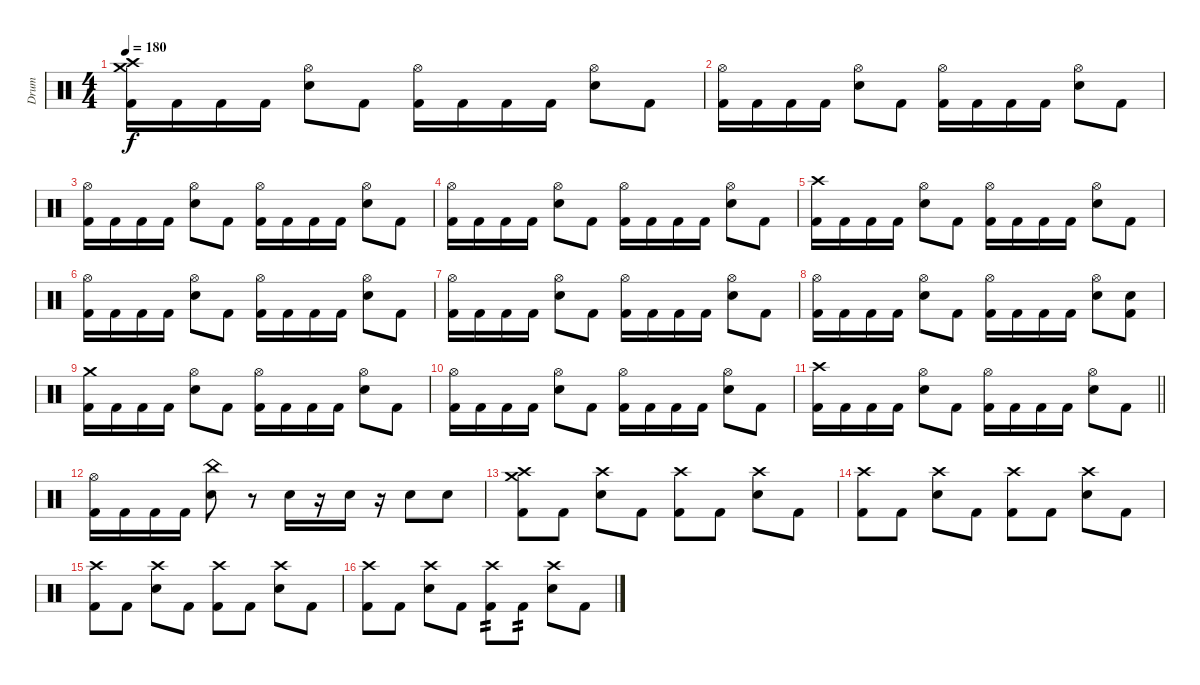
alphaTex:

\track ("Drum" "Drum") {instrument percussion}
\staff {score}
\articulation defaults
\ts (4 4)
\tempo 180
\clef neutral
\ks c
("Crash high (hit)" "Crash medium (hit)" "Kick (hit) 2").16{dy f} "Kick (hit) 2".16 "Kick (hit) 2".16 "Kick (hit) 2".16 ("Hi-Hat (open)" "Snare (hit) 2").8 "Kick (hit) 2".8 ("Hi-Hat (open)" "Kick (hit) 2").16 "Kick (hit) 2".16 "Kick (hit) 2".16 "Kick (hit) 2".16 ("Hi-Hat (open)" "Snare (hit) 2").8 "Kick (hit) 2".8 |
("Hi-Hat (open)" "Kick (hit) 2").16 "Kick (hit) 2".16 "Kick (hit) 2".16 "Kick (hit) 2".16 ("Hi-Hat (open)" "Snare (hit) 2").8 "Kick (hit) 2".8 ("Hi-Hat (open)" "Kick (hit) 2").16 "Kick (hit) 2".16 "Kick (hit) 2".16 "Kick (hit) 2".16 ("Hi-Hat (open)" "Snare (hit) 2").8 "Kick (hit) 2".8 |
("Hi-Hat (open)" "Kick (hit) 2").16 "Kick (hit) 2".16 "Kick (hit) 2".16 "Kick (hit) 2".16 ("Hi-Hat (open)" "Snare (hit) 2").8 "Kick (hit) 2".8 ("Hi-Hat (open)" "Kick (hit) 2").16 "Kick (hit) 2".16 "Kick (hit) 2".16 "Kick (hit) 2".16 ("Hi-Hat (open)" "Snare (hit) 2").8 "Kick (hit) 2".8 |
("Hi-Hat (open)" "Kick (hit) 2").16 "Kick (hit) 2".16 "Kick (hit) 2".16 "Kick (hit) 2".16 ("Hi-Hat (open)" "Snare (hit) 2").8 "Kick (hit) 2".8 ("Hi-Hat (open)" "Kick (hit) 2").16 "Kick (hit) 2".16 "Kick (hit) 2".16 "Kick (hit) 2".16 ("Hi-Hat (open)" "Snare (hit) 2").8 "Kick (hit) 2".8 |
("Crash high (hit)" "Kick (hit) 2").16 "Kick (hit) 2".16 "Kick (hit) 2".16 "Kick (hit) 2".16 ("Hi-Hat (open)" "Snare (hit) 2").8 "Kick (hit) 2".8 ("Hi-Hat (open)" "Kick (hit) 2").16 "Kick (hit) 2".16 "Kick (hit) 2".16 "Kick (hit) 2".16 ("Hi-Hat (open)" "Snare (hit) 2").8 "Kick (hit) 2".8 |
("Hi-Hat (open)" "Kick (hit) 2").16 "Kick (hit) 2".16 "Kick (hit) 2".16 "Kick (hit) 2".16 ("Hi-Hat (open)" "Snare (hit) 2").8 "Kick (hit) 2".8 ("Hi-Hat (open)" "Kick (hit) 2").16 "Kick (hit) 2".16 "Kick (hit) 2".16 "Kick (hit) 2".16 ("Hi-Hat (open)" "Snare (hit) 2").8 "Kick (hit) 2".8 |
("Hi-Hat (open)" "Kick (hit) 2").16 "Kick (hit) 2".16 "Kick (hit) 2".16 "Kick (hit) 2".16 ("Hi-Hat (open)" "Snare (hit) 2").8 "Kick (hit) 2".8 ("Hi-Hat (open)" "Kick (hit) 2").16 "Kick (hit) 2".16 "Kick (hit) 2".16 "Kick (hit) 2".16 ("Hi-Hat (open)" "Snare (hit) 2").8 "Kick (hit) 2".8 |
("Hi-Hat (open)" "Kick (hit) 2").16 "Kick (hit) 2".16 "Kick (hit) 2".16 "Kick (hit) 2".16 ("Hi-Hat (open)" "Snare (hit) 2").8 "Kick (hit) 2".8 ("Hi-Hat (open)" "Kick (hit) 2").16 "Kick (hit) 2".16 "Kick (hit) 2".16 "Kick (hit) 2".16 ("Hi-Hat (open)" "Snare (hit) 2").8 ("Snare (hit) 2" "Kick (hit) 2").8 |
("Crash medium (hit)" "Kick (hit) 2").16 "Kick (hit) 2".16 "Kick (hit) 2".16 "Kick (hit) 2".16 ("Hi-Hat (open)" "Snare (hit) 2").8 "Kick (hit) 2".8 ("Hi-Hat (open)" "Kick (hit) 2").16 "Kick (hit) 2".16 "Kick (hit) 2".16 "Kick (hit) 2".16 ("Hi-Hat (open)" "Snare (hit) 2").8 "Kick (hit) 2".8 |
("Hi-Hat (open)" "Kick (hit) 2").16 "Kick (hit) 2".16 "Kick (hit) 2".16 "Kick (hit) 2".16 ("Hi-Hat (open)" "Snare (hit) 2").8 "Kick (hit) 2".8 ("Hi-Hat (open)" "Kick (hit) 2").16 "Kick (hit) 2".16 "Kick (hit) 2".16 "Kick (hit) 2".16 ("Hi-Hat (open)" "Snare (hit) 2").8 "Kick (hit) 2".8 |
\barLineRight lightlight
("Crash high (hit)" "Kick (hit) 2").16 "Kick (hit) 2".16 "Kick (hit) 2".16 "Kick (hit) 2".16 ("Hi-Hat (open)" "Snare (hit) 2").8 "Kick (hit) 2".8 ("Hi-Hat (open)" "Kick (hit) 2").16 "Kick (hit) 2".16 "Kick (hit) 2".16 "Kick (hit) 2".16 ("Hi-Hat (open)" "Snare (hit) 2").8 "Kick (hit) 2".8 |
\section ("" "")
("Hi-Hat (open)" "Kick (hit) 2").16 "Kick (hit) 2".16 "Kick (hit) 2".16 "Kick (hit) 2".16 ("China (hit)" "Snare (hit) 2").8 r.8 "Snare (hit) 2".16 r.16 "Snare (hit) 2".16 r.16 "Snare (hit) 2".8 "Snare (hit) 2".8 |
("Crash high (hit)" "Crash medium (hit)" "Kick (hit) 2").8 "Kick (hit) 2".8 ("Crash high (hit)" "Snare (hit) 2").8 "Kick (hit) 2".8 ("Crash high (hit)" "Kick (hit) 2").8 "Kick (hit) 2".8 ("Crash high (hit)" "Snare (hit) 2").8 "Kick (hit) 2".8 |
("Crash high (hit)" "Kick (hit) 2").8 "Kick (hit) 2".8 ("Crash high (hit)" "Snare (hit) 2").8 "Kick (hit) 2".8 ("Crash high (hit)" "Kick (hit) 2").8 "Kick (hit) 2".8 ("Crash high (hit)" "Snare (hit) 2").8 "Kick (hit) 2".8 |
("Crash high (hit)" "Kick (hit) 2").8 "Kick (hit) 2".8 ("Crash high (hit)" "Snare (hit) 2").8 "Kick (hit) 2".8 ("Crash high (hit)" "Kick (hit) 2").8 "Kick (hit) 2".8 ("Crash high (hit)" "Snare (hit) 2").8 "Kick (hit) 2".8 |
("Crash high (hit)" "Kick (hit) 2").8 "Kick (hit) 2".8 ("Crash high (hit)" "Snare (hit) 2").8 "Kick (hit) 2".8 ("Crash high (hit)" "Kick (hit) 2").8{tp 2} "Kick (hit) 2".8{tp 2} ("Crash high (hit)" "Snare (hit) 2").8 "Kick (hit) 2".8
